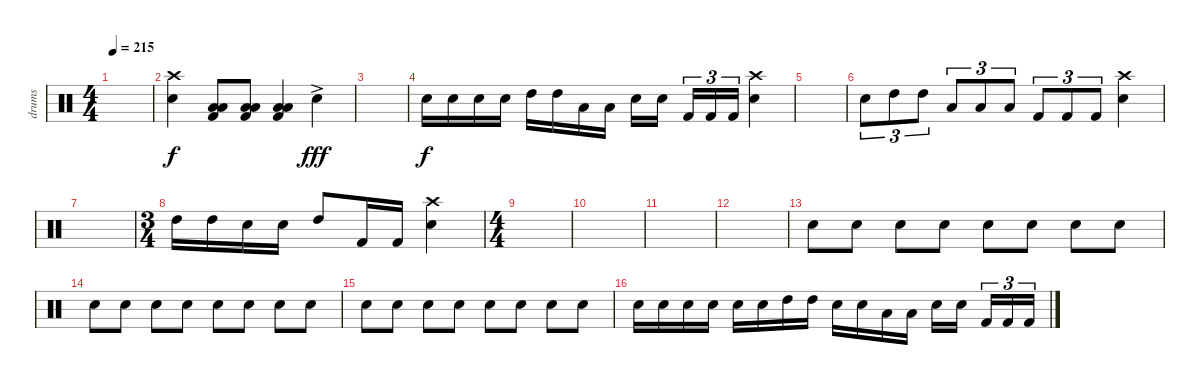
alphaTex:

\track ("drums" "drums") {instrument percussion}
\staff {score}
\articulation defaults
\ts (4 4)
\section ("" "")
\tempo 215
\clef neutral
\ks c
|
("Crash high (hit)" "Electric Snare (hit)").4 ("Low Tom (hit)" "Low Floor Tom (hit)" "Kick (hit) 2").8 ("Low Tom (hit)" "Low Floor Tom (hit)" "Kick (hit) 2").8 ("Low Tom (hit)" "Low Floor Tom (hit)" "Kick (hit) 2").4 "Electric Snare (hit)"{ac}.4{dy fff} |
|
"Electric Snare (hit)".16{dy f} "Electric Snare (hit)".16 "Electric Snare (hit)".16 "Electric Snare (hit)".16 "High Tom (hit)".16 "High Tom (hit)".16 "Low Tom (hit)".16 "Low Tom (hit)".16 "Electric Snare (hit)".16 "Electric Snare (hit)".16 "Kick (hit) 2".16{tu (3 2)} "Kick (hit) 2".16{tu (3 2)} "Kick (hit) 2".16{tu (3 2)} ("Crash high (hit)" "Electric Snare (hit)").4 |
|
"Electric Snare (hit)".8{tu (3 2)} "High Tom (hit)".8{tu (3 2)} "High Tom (hit)".8{tu (3 2)} "Low Tom (hit)".8{tu (3 2)} "Low Tom (hit)".8{tu (3 2)} "Low Tom (hit)".8{tu (3 2)} "Kick (hit) 2".8{tu (3 2)} "Kick (hit) 2".8{tu (3 2)} "Kick (hit) 2".8{tu (3 2)} ("Crash high (hit)" "Electric Snare (hit)").4 |
|
\ts (3 4)
"High Tom (hit)".16 "High Tom (hit)".16 "Electric Snare (hit)".16 "Electric Snare (hit)".16 "High Tom (hit)".8 "Kick (hit) 2".16 "Kick (hit) 2".16 ("Crash high (hit)" "Electric Snare (hit)").4 |
\ts (4 4)
\section ("" "")
|
|
|
|
"Electric Snare (hit)".8{volume 16} "Electric Snare (hit)".8 "Electric Snare (hit)".8 "Electric Snare (hit)".8 "Electric Snare (hit)".8 "Electric Snare (hit)".8 "Electric Snare (hit)".8 "Electric Snare (hit)".8 |
"Electric Snare (hit)".8 "Electric Snare (hit)".8 "Electric Snare (hit)".8 "Electric Snare (hit)".8 "Electric Snare (hit)".8 "Electric Snare (hit)".8 "Electric Snare (hit)".8 "Electric Snare (hit)".8 |
"Electric Snare (hit)".8 "Electric Snare (hit)".8 "Electric Snare (hit)".8 "Electric Snare (hit)".8 "Electric Snare (hit)".8 "Electric Snare (hit)".8 "Electric Snare (hit)".8 "Electric Snare (hit)".8 |
"Electric Snare (hit)".16 "Electric Snare (hit)".16 "Electric Snare (hit)".16 "Electric Snare (hit)".16 "Electric Snare (hit)".16 "Electric Snare (hit)".16 "High Tom (hit)".16 "High Tom (hit)".16 "Electric Snare (hit)".16 "Electric Snare (hit)".16 "Low Tom (hit)".16 "Low Tom (hit)".16 "Electric Snare (hit)".16 "Electric Snare (hit)".16 "Kick (hit) 2".16{tu (3 2)} "Kick (hit) 2".16{tu (3 2)} "Kick (hit) 2".16{tu (3 2)}
